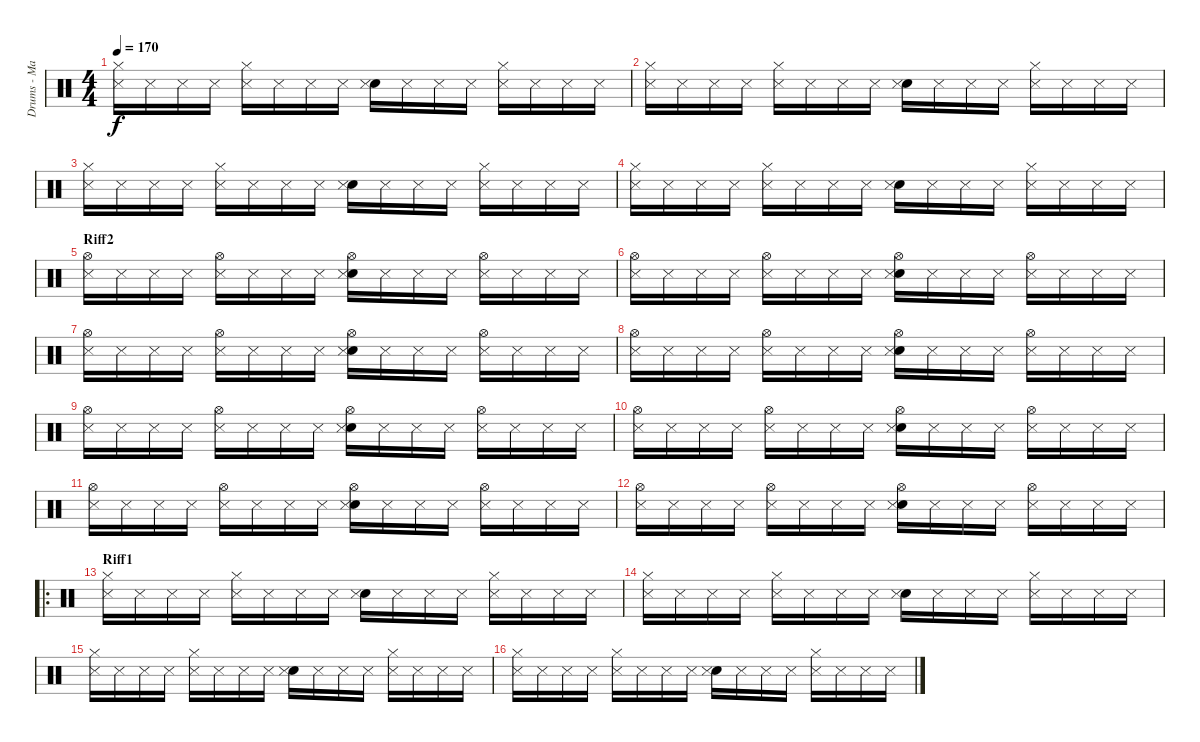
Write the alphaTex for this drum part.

\track ("Drums - Mattias Grahn" "Drums - Ma") {instrument percussion}
\staff {score}
\articulation defaults
\ts (4 4)
\tempo 170
\clef neutral
\ks c
("Hi-Hat (closed)" "Snare (side stick) 3").16{dy f} "Snare (side stick) 3".16 "Snare (side stick) 3".16 "Snare (side stick) 3".16 ("Hi-Hat (closed)" "Snare (side stick) 3").16 "Snare (side stick) 3".16 "Snare (side stick) 3".16 "Snare (side stick) 3".16 ("Electric Snare (hit)" "Snare (side stick) 3").16 "Snare (side stick) 3".16 "Snare (side stick) 3".16 "Snare (side stick) 3".16 ("Hi-Hat (closed)" "Snare (side stick) 3").16 "Snare (side stick) 3".16 "Snare (side stick) 3".16 "Snare (side stick) 3".16 |
("Hi-Hat (closed)" "Snare (side stick) 3").16 "Snare (side stick) 3".16 "Snare (side stick) 3".16 "Snare (side stick) 3".16 ("Hi-Hat (closed)" "Snare (side stick) 3").16 "Snare (side stick) 3".16 "Snare (side stick) 3".16 "Snare (side stick) 3".16 ("Electric Snare (hit)" "Snare (side stick) 3").16 "Snare (side stick) 3".16 "Snare (side stick) 3".16 "Snare (side stick) 3".16 ("Hi-Hat (closed)" "Snare (side stick) 3").16 "Snare (side stick) 3".16 "Snare (side stick) 3".16 "Snare (side stick) 3".16 |
("Hi-Hat (closed)" "Snare (side stick) 3").16 "Snare (side stick) 3".16 "Snare (side stick) 3".16 "Snare (side stick) 3".16 ("Hi-Hat (closed)" "Snare (side stick) 3").16 "Snare (side stick) 3".16 "Snare (side stick) 3".16 "Snare (side stick) 3".16 ("Electric Snare (hit)" "Snare (side stick) 3").16 "Snare (side stick) 3".16 "Snare (side stick) 3".16 "Snare (side stick) 3".16 ("Hi-Hat (closed)" "Snare (side stick) 3").16 "Snare (side stick) 3".16 "Snare (side stick) 3".16 "Snare (side stick) 3".16 |
("Hi-Hat (closed)" "Snare (side stick) 3").16 "Snare (side stick) 3".16 "Snare (side stick) 3".16 "Snare (side stick) 3".16 ("Hi-Hat (closed)" "Snare (side stick) 3").16 "Snare (side stick) 3".16 "Snare (side stick) 3".16 "Snare (side stick) 3".16 ("Electric Snare (hit)" "Snare (side stick) 3").16 "Snare (side stick) 3".16 "Snare (side stick) 3".16 "Snare (side stick) 3".16 ("Hi-Hat (closed)" "Snare (side stick) 3").16 "Snare (side stick) 3".16 "Snare (side stick) 3".16 "Snare (side stick) 3".16 |
\section ("" "Riff2")
("Hi-Hat (open)" "Snare (side stick) 3").16 "Snare (side stick) 3".16 "Snare (side stick) 3".16 "Snare (side stick) 3".16 ("Hi-Hat (open)" "Snare (side stick) 3").16 "Snare (side stick) 3".16 "Snare (side stick) 3".16 "Snare (side stick) 3".16 ("Electric Snare (hit)" "Hi-Hat (open)" "Snare (side stick) 3").16 "Snare (side stick) 3".16 "Snare (side stick) 3".16 "Snare (side stick) 3".16 ("Hi-Hat (open)" "Snare (side stick) 3").16 "Snare (side stick) 3".16 "Snare (side stick) 3".16 "Snare (side stick) 3".16 |
("Hi-Hat (open)" "Snare (side stick) 3").16 "Snare (side stick) 3".16 "Snare (side stick) 3".16 "Snare (side stick) 3".16 ("Hi-Hat (open)" "Snare (side stick) 3").16 "Snare (side stick) 3".16 "Snare (side stick) 3".16 "Snare (side stick) 3".16 ("Electric Snare (hit)" "Hi-Hat (open)" "Snare (side stick) 3").16 "Snare (side stick) 3".16 "Snare (side stick) 3".16 "Snare (side stick) 3".16 ("Hi-Hat (open)" "Snare (side stick) 3").16 "Snare (side stick) 3".16 "Snare (side stick) 3".16 "Snare (side stick) 3".16 |
("Hi-Hat (open)" "Snare (side stick) 3").16 "Snare (side stick) 3".16 "Snare (side stick) 3".16 "Snare (side stick) 3".16 ("Hi-Hat (open)" "Snare (side stick) 3").16 "Snare (side stick) 3".16 "Snare (side stick) 3".16 "Snare (side stick) 3".16 ("Electric Snare (hit)" "Hi-Hat (open)" "Snare (side stick) 3").16 "Snare (side stick) 3".16 "Snare (side stick) 3".16 "Snare (side stick) 3".16 ("Hi-Hat (open)" "Snare (side stick) 3").16 "Snare (side stick) 3".16 "Snare (side stick) 3".16 "Snare (side stick) 3".16 |
("Hi-Hat (open)" "Snare (side stick) 3").16 "Snare (side stick) 3".16 "Snare (side stick) 3".16 "Snare (side stick) 3".16 ("Hi-Hat (open)" "Snare (side stick) 3").16 "Snare (side stick) 3".16 "Snare (side stick) 3".16 "Snare (side stick) 3".16 ("Electric Snare (hit)" "Hi-Hat (open)" "Snare (side stick) 3").16 "Snare (side stick) 3".16 "Snare (side stick) 3".16 "Snare (side stick) 3".16 ("Hi-Hat (open)" "Snare (side stick) 3").16 "Snare (side stick) 3".16 "Snare (side stick) 3".16 "Snare (side stick) 3".16 |
("Hi-Hat (open)" "Snare (side stick) 3").16 "Snare (side stick) 3".16 "Snare (side stick) 3".16 "Snare (side stick) 3".16 ("Hi-Hat (open)" "Snare (side stick) 3").16 "Snare (side stick) 3".16 "Snare (side stick) 3".16 "Snare (side stick) 3".16 ("Electric Snare (hit)" "Hi-Hat (open)" "Snare (side stick) 3").16 "Snare (side stick) 3".16 "Snare (side stick) 3".16 "Snare (side stick) 3".16 ("Hi-Hat (open)" "Snare (side stick) 3").16 "Snare (side stick) 3".16 "Snare (side stick) 3".16 "Snare (side stick) 3".16 |
("Hi-Hat (open)" "Snare (side stick) 3").16 "Snare (side stick) 3".16 "Snare (side stick) 3".16 "Snare (side stick) 3".16 ("Hi-Hat (open)" "Snare (side stick) 3").16 "Snare (side stick) 3".16 "Snare (side stick) 3".16 "Snare (side stick) 3".16 ("Electric Snare (hit)" "Hi-Hat (open)" "Snare (side stick) 3").16 "Snare (side stick) 3".16 "Snare (side stick) 3".16 "Snare (side stick) 3".16 ("Hi-Hat (open)" "Snare (side stick) 3").16 "Snare (side stick) 3".16 "Snare (side stick) 3".16 "Snare (side stick) 3".16 |
("Hi-Hat (open)" "Snare (side stick) 3").16 "Snare (side stick) 3".16 "Snare (side stick) 3".16 "Snare (side stick) 3".16 ("Hi-Hat (open)" "Snare (side stick) 3").16 "Snare (side stick) 3".16 "Snare (side stick) 3".16 "Snare (side stick) 3".16 ("Electric Snare (hit)" "Hi-Hat (open)" "Snare (side stick) 3").16 "Snare (side stick) 3".16 "Snare (side stick) 3".16 "Snare (side stick) 3".16 ("Hi-Hat (open)" "Snare (side stick) 3").16 "Snare (side stick) 3".16 "Snare (side stick) 3".16 "Snare (side stick) 3".16 |
("Hi-Hat (open)" "Snare (side stick) 3").16 "Snare (side stick) 3".16 "Snare (side stick) 3".16 "Snare (side stick) 3".16 ("Hi-Hat (open)" "Snare (side stick) 3").16 "Snare (side stick) 3".16 "Snare (side stick) 3".16 "Snare (side stick) 3".16 ("Electric Snare (hit)" "Hi-Hat (open)" "Snare (side stick) 3").16 "Snare (side stick) 3".16 "Snare (side stick) 3".16 "Snare (side stick) 3".16 ("Hi-Hat (open)" "Snare (side stick) 3").16 "Snare (side stick) 3".16 "Snare (side stick) 3".16 "Snare (side stick) 3".16 |
\ro
\section ("" "Riff1")
("Hi-Hat (closed)" "Snare (side stick) 3").16 "Snare (side stick) 3".16 "Snare (side stick) 3".16 "Snare (side stick) 3".16 ("Hi-Hat (closed)" "Snare (side stick) 3").16 "Snare (side stick) 3".16 "Snare (side stick) 3".16 "Snare (side stick) 3".16 ("Electric Snare (hit)" "Snare (side stick) 3").16 "Snare (side stick) 3".16 "Snare (side stick) 3".16 "Snare (side stick) 3".16 ("Hi-Hat (closed)" "Snare (side stick) 3").16 "Snare (side stick) 3".16 "Snare (side stick) 3".16 "Snare (side stick) 3".16 |
("Hi-Hat (closed)" "Snare (side stick) 3").16 "Snare (side stick) 3".16 "Snare (side stick) 3".16 "Snare (side stick) 3".16 ("Hi-Hat (closed)" "Snare (side stick) 3").16 "Snare (side stick) 3".16 "Snare (side stick) 3".16 "Snare (side stick) 3".16 ("Electric Snare (hit)" "Snare (side stick) 3").16 "Snare (side stick) 3".16 "Snare (side stick) 3".16 "Snare (side stick) 3".16 ("Hi-Hat (closed)" "Snare (side stick) 3").16 "Snare (side stick) 3".16 "Snare (side stick) 3".16 "Snare (side stick) 3".16 |
("Hi-Hat (closed)" "Snare (side stick) 3").16 "Snare (side stick) 3".16 "Snare (side stick) 3".16 "Snare (side stick) 3".16 ("Hi-Hat (closed)" "Snare (side stick) 3").16 "Snare (side stick) 3".16 "Snare (side stick) 3".16 "Snare (side stick) 3".16 ("Electric Snare (hit)" "Snare (side stick) 3").16 "Snare (side stick) 3".16 "Snare (side stick) 3".16 "Snare (side stick) 3".16 ("Hi-Hat (closed)" "Snare (side stick) 3").16 "Snare (side stick) 3".16 "Snare (side stick) 3".16 "Snare (side stick) 3".16 |
("Hi-Hat (closed)" "Snare (side stick) 3").16 "Snare (side stick) 3".16 "Snare (side stick) 3".16 "Snare (side stick) 3".16 ("Hi-Hat (closed)" "Snare (side stick) 3").16 "Snare (side stick) 3".16 "Snare (side stick) 3".16 "Snare (side stick) 3".16 ("Electric Snare (hit)" "Snare (side stick) 3").16 "Snare (side stick) 3".16 "Snare (side stick) 3".16 "Snare (side stick) 3".16 ("Hi-Hat (closed)" "Snare (side stick) 3").16 "Snare (side stick) 3".16 "Snare (side stick) 3".16 "Snare (side stick) 3".16
